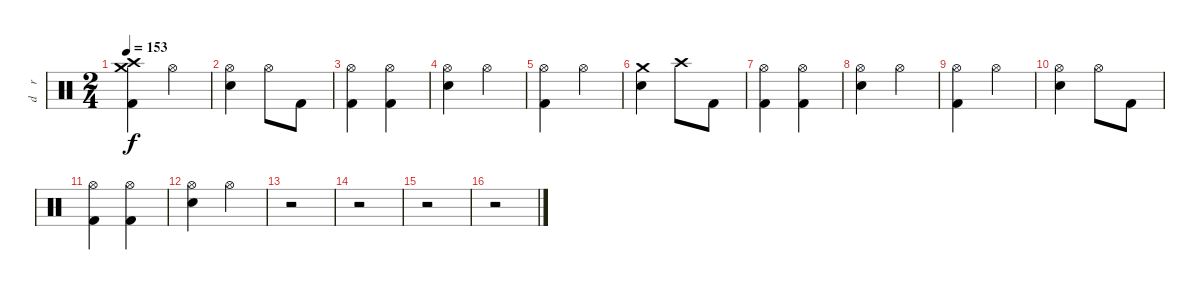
\track ("d    r     u    m    s" "d    r    ") {instrument percussion}
\staff {score}
\articulation defaults
\ts (2 4)
\tempo 153
\clef neutral
\ks c
("Crash high (hit)" "Crash medium (hit)" "Kick (hit) 2").4{dy f} "Hi-Hat (open)".4 |
("Hi-Hat (open)" "Electric Snare (hit)").4 "Hi-Hat (open)".8 "Kick (hit) 2".8 |
("Hi-Hat (open)" "Kick (hit) 2").4 ("Hi-Hat (open)" "Kick (hit) 2").4 |
("Hi-Hat (open)" "Electric Snare (hit)").4 "Hi-Hat (open)".4 |
("Hi-Hat (open)" "Kick (hit) 2").4 "Hi-Hat (open)".4 |
("Crash medium (hit)" "Electric Snare (hit)").4 "Crash high (hit)".8 "Kick (hit) 2".8 |
("Hi-Hat (open)" "Kick (hit) 2").4 ("Hi-Hat (open)" "Kick (hit) 2").4 |
("Hi-Hat (open)" "Electric Snare (hit)").4{volume 0} "Hi-Hat (open)".4 |
("Hi-Hat (open)" "Kick (hit) 2").4 "Hi-Hat (open)".4 |
("Hi-Hat (open)" "Electric Snare (hit)").4 "Hi-Hat (open)".8 "Kick (hit) 2".8 |
("Hi-Hat (open)" "Kick (hit) 2").4 ("Hi-Hat (open)" "Kick (hit) 2").4 |
("Hi-Hat (open)" "Electric Snare (hit)").4 "Hi-Hat (open)".4 |
r.2 |
r.2 |
r.2 |
r.2
